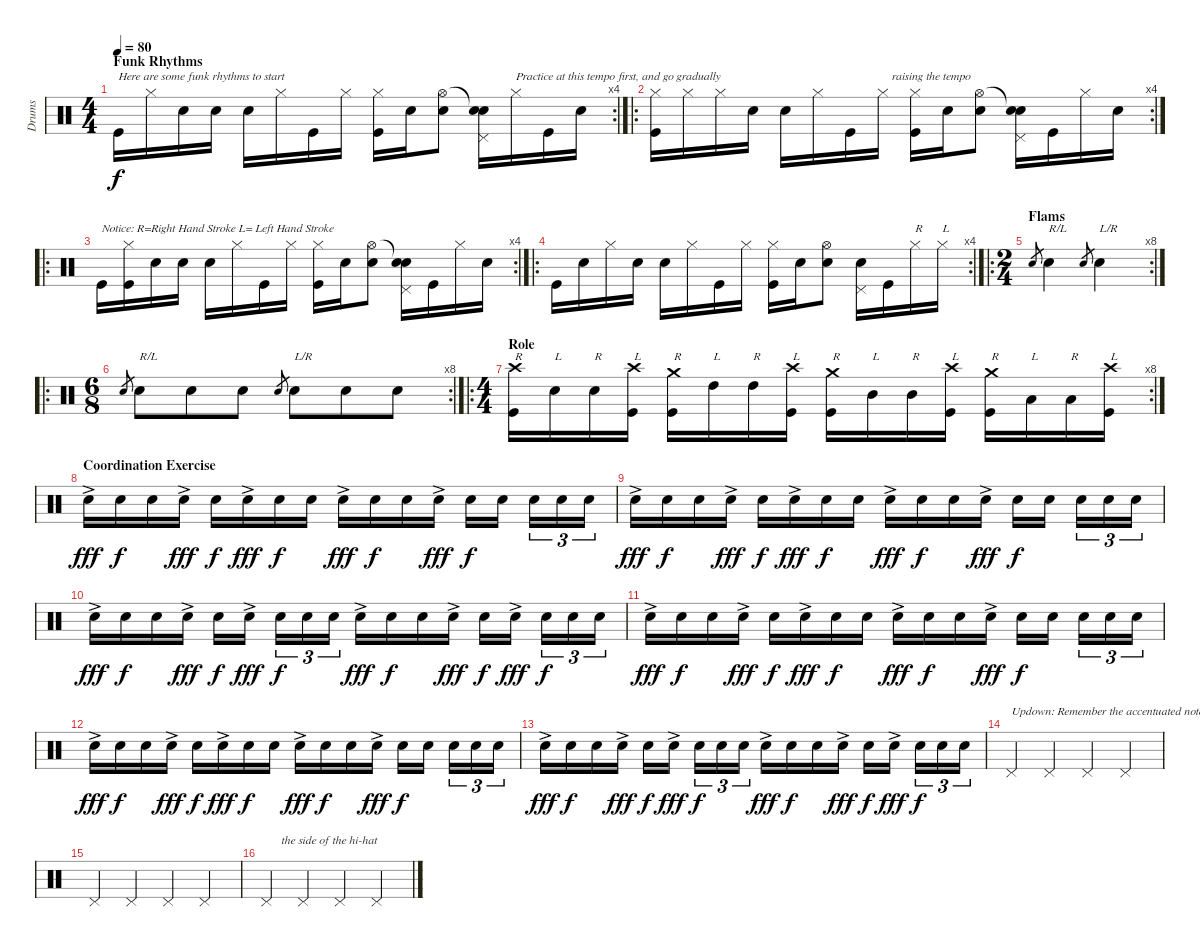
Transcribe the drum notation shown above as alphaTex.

\track ("Drums" "Drums") {instrument percussion}
\staff {score}
\articulation defaults
\rc 4
\ts (4 4)
\section ("" "Funk Rhythms")
\tempo 80
\clef neutral
\ks c "Kick (hit)".16{txt "Here are some funk rhythms to start" dy f} "Hi-Hat (closed)".16 "Electric Snare (hit)".16 "Electric Snare (hit)".16 "Electric Snare (hit)".16 "Hi-Hat (closed)".16 "Kick (hit)".16 "Hi-Hat (closed)".16
("Hi-Hat (closed)" "Kick (hit)").16 "Electric Snare (hit)".16 ("Hi-Hat (open)" "Electric Snare (hit)").8 ("Snare (hit)"{t} "Electric Snare (hit)" "Pedal Hi-Hat (hit)").16 "Hi-Hat (closed)".16{txt "Practice at this tempo first, and go gradually"} "Kick (hit)".16 "Electric Snare (hit)".16 |
\ro
\rc 4
("Hi-Hat (closed)" "Kick (hit)").16 "Hi-Hat (closed)".16 "Hi-Hat (closed)".16 "Electric Snare (hit)".16 "Electric Snare (hit)".16 "Hi-Hat (closed)".16 "Kick (hit)".16 "Hi-Hat (closed)".16{txt "   raising the tempo"} ("Hi-Hat (closed)" "Kick (hit)").16 "Electric Snare (hit)".16 ("Hi-Hat (open)" "Electric Snare (hit)").8 ("Snare (hit)"{t} "Electric Snare (hit)" "Pedal Hi-Hat (hit)").16 "Kick (hit)".16 "Hi-Hat (closed)".16 "Electric Snare (hit)".16 |
\ro
\rc 4 "Kick (hit)".16{txt "Notice: R=Right Hand Stroke L= Left Hand Stroke"}
("Hi-Hat (closed)" "Kick (hit)").16 "Electric Snare (hit)".16 "Electric Snare (hit)".16 "Electric Snare (hit)".16 "Hi-Hat (closed)".16 "Kick (hit)".16 "Hi-Hat (closed)".16 ("Hi-Hat (closed)" "Kick (hit)").16 "Electric Snare (hit)".16 ("Hi-Hat (open)" "Electric Snare (hit)").8 ("Snare (hit)"{t} "Electric Snare (hit)" "Pedal Hi-Hat (hit)").16 "Kick (hit)".16 "Hi-Hat (closed)".16 "Electric Snare (hit)".16 |
\ro
\rc 4 "Kick (hit)".16 "Electric Snare (hit)".16 "Hi-Hat (closed)".16 "Electric Snare (hit)".16 "Electric Snare (hit)".16 "Hi-Hat (closed)".16 "Kick (hit)".16 "Hi-Hat (closed)".16
("Hi-Hat (closed)" "Kick (hit)").16 "Electric Snare (hit)".16 ("Hi-Hat (open)" "Electric Snare (hit)").8 ("Electric Snare (hit)" "Pedal Hi-Hat (hit)").16 "Kick (hit)".16 "Hi-Hat (closed)".16{txt "R"} "Hi-Hat (closed)".16{txt "L"} |
\ro
\rc 8
\ts (2 4)
\section ("" "Flams")
"Electric Snare (hit)".8{gr} "Electric Snare (hit)".4{txt "R/L"} "Electric Snare (hit)".8{gr} "Electric Snare (hit)".4{txt "L/R"} |
\ro
\rc 8
\ts (6 8)
"Electric Snare (hit)".8{gr} "Electric Snare (hit)".8{txt "R/L"} "Electric Snare (hit)".8 "Electric Snare (hit)".8 "Electric Snare (hit)".8{gr} "Electric Snare (hit)".8{txt "L/R"} "Electric Snare (hit)".8 "Electric Snare (hit)".8 |
\ro
\rc 8
\ts (4 4)
\section ("" "Role")
("Crash high (hit)" "Kick (hit)").16{txt "R"} "Electric Snare (hit)".16{txt "L"} "Electric Snare (hit)".16{txt "R"} ("Crash high (hit)" "Kick (hit)").16{txt "L"} ("Crash medium (hit)" "Kick (hit)").16{txt "R"} "High Tom (hit)".16{txt "L"} "High Tom (hit)".16{txt "R"} ("Crash high (hit)" "Kick (hit)").16{txt "L"} ("Crash medium (hit)" "Kick (hit)").16{txt "R"} "Mid Tom (hit)".16{txt "L"} "Mid Tom (hit)".16{txt "R"} ("Crash high (hit)" "Kick (hit)").16{txt "L"} ("Crash medium (hit)" "Kick (hit)").16{txt "R"} "Low Tom (hit)".16{txt "L"} "Low Tom (hit)".16{txt "R"} ("Crash high (hit)" "Kick (hit)").16{txt "L"} |
\section ("" "Coordination Exercise")
"Electric Snare (hit)"{ac}.16{dy fff} "Electric Snare (hit)".16{dy f} "Electric Snare (hit)".16 "Electric Snare (hit)"{ac}.16{dy fff} "Electric Snare (hit)".16{dy f} "Electric Snare (hit)"{ac}.16{dy fff} "Electric Snare (hit)".16{dy f} "Electric Snare (hit)".16 "Electric Snare (hit)"{ac}.16{dy fff} "Electric Snare (hit)".16{dy f} "Electric Snare (hit)".16 "Electric Snare (hit)"{ac}.16{dy fff} "Electric Snare (hit)".16{dy f} "Electric Snare (hit)".16 "Electric Snare (hit)".16{tu (3 2)} "Electric Snare (hit)".16{tu (3 2)} "Electric Snare (hit)".16{tu (3 2)} |
"Electric Snare (hit)"{ac}.16{dy fff} "Electric Snare (hit)".16{dy f} "Electric Snare (hit)".16 "Electric Snare (hit)"{ac}.16{dy fff} "Electric Snare (hit)".16{dy f} "Electric Snare (hit)"{ac}.16{dy fff} "Electric Snare (hit)".16{dy f} "Electric Snare (hit)".16 "Electric Snare (hit)"{ac}.16{dy fff} "Electric Snare (hit)".16{dy f} "Electric Snare (hit)".16 "Electric Snare (hit)"{ac}.16{dy fff} "Electric Snare (hit)".16{dy f} "Electric Snare (hit)".16 "Electric Snare (hit)".16{tu (3 2)} "Electric Snare (hit)".16{tu (3 2)} "Electric Snare (hit)".16{tu (3 2)} |
"Electric Snare (hit)"{ac}.16{dy fff} "Electric Snare (hit)".16{dy f} "Electric Snare (hit)".16 "Electric Snare (hit)"{ac}.16{dy fff} "Electric Snare (hit)".16{dy f} "Electric Snare (hit)"{ac}.16{dy fff} "Electric Snare (hit)".16{tu (3 2) dy f} "Electric Snare (hit)".16{tu (3 2)} "Electric Snare (hit)".16{tu (3 2)} "Electric Snare (hit)"{ac}.16{dy fff} "Electric Snare (hit)".16{dy f} "Electric Snare (hit)".16 "Electric Snare (hit)"{ac}.16{dy fff} "Electric Snare (hit)".16{dy f} "Electric Snare (hit)"{ac}.16{dy fff} "Electric Snare (hit)".16{tu (3 2) dy f} "Electric Snare (hit)".16{tu (3 2)} "Electric Snare (hit)".16{tu (3 2)} |
"Electric Snare (hit)"{ac}.16{dy fff} "Electric Snare (hit)".16{dy f} "Electric Snare (hit)".16 "Electric Snare (hit)"{ac}.16{dy fff} "Electric Snare (hit)".16{dy f} "Electric Snare (hit)"{ac}.16{dy fff} "Electric Snare (hit)".16{dy f} "Electric Snare (hit)".16 "Electric Snare (hit)"{ac}.16{dy fff} "Electric Snare (hit)".16{dy f} "Electric Snare (hit)".16 "Electric Snare (hit)"{ac}.16{dy fff} "Electric Snare (hit)".16{dy f} "Electric Snare (hit)".16 "Electric Snare (hit)".16{tu (3 2)} "Electric Snare (hit)".16{tu (3 2)} "Electric Snare (hit)".16{tu (3 2)} |
"Electric Snare (hit)"{ac}.16{dy fff} "Electric Snare (hit)".16{dy f} "Electric Snare (hit)".16 "Electric Snare (hit)"{ac}.16{dy fff} "Electric Snare (hit)".16{dy f} "Electric Snare (hit)"{ac}.16{dy fff} "Electric Snare (hit)".16{dy f} "Electric Snare (hit)".16 "Electric Snare (hit)"{ac}.16{dy fff} "Electric Snare (hit)".16{dy f} "Electric Snare (hit)".16 "Electric Snare (hit)"{ac}.16{dy fff} "Electric Snare (hit)".16{dy f} "Electric Snare (hit)".16 "Electric Snare (hit)".16{tu (3 2)} "Electric Snare (hit)".16{tu (3 2)} "Electric Snare (hit)".16{tu (3 2)} |
"Electric Snare (hit)"{ac}.16{dy fff} "Electric Snare (hit)".16{dy f} "Electric Snare (hit)".16 "Electric Snare (hit)"{ac}.16{dy fff} "Electric Snare (hit)".16{dy f} "Electric Snare (hit)"{ac}.16{dy fff} "Electric Snare (hit)".16{tu (3 2) dy f} "Electric Snare (hit)".16{tu (3 2)} "Electric Snare (hit)".16{tu (3 2)} "Electric Snare (hit)"{ac}.16{dy fff} "Electric Snare (hit)".16{dy f} "Electric Snare (hit)".16 "Electric Snare (hit)"{ac}.16{dy fff} "Electric Snare (hit)".16{dy f} "Electric Snare (hit)"{ac}.16{dy fff} "Electric Snare (hit)".16{tu (3 2) dy f} "Electric Snare (hit)".16{tu (3 2)} "Electric Snare (hit)".16{tu (3 2)} |
"Pedal Hi-Hat (hit)".4{txt "Updown: Remember the accentuated notes are hit on "} "Pedal Hi-Hat (hit)".4 "Pedal Hi-Hat (hit)".4 "Pedal Hi-Hat (hit)".4 |
"Pedal Hi-Hat (hit)".4 "Pedal Hi-Hat (hit)".4 "Pedal Hi-Hat (hit)".4 "Pedal Hi-Hat (hit)".4 |
"Pedal Hi-Hat (hit)".4{txt "     the side of the hi-hat"} "Pedal Hi-Hat (hit)".4 "Pedal Hi-Hat (hit)".4 "Pedal Hi-Hat (hit)".4
